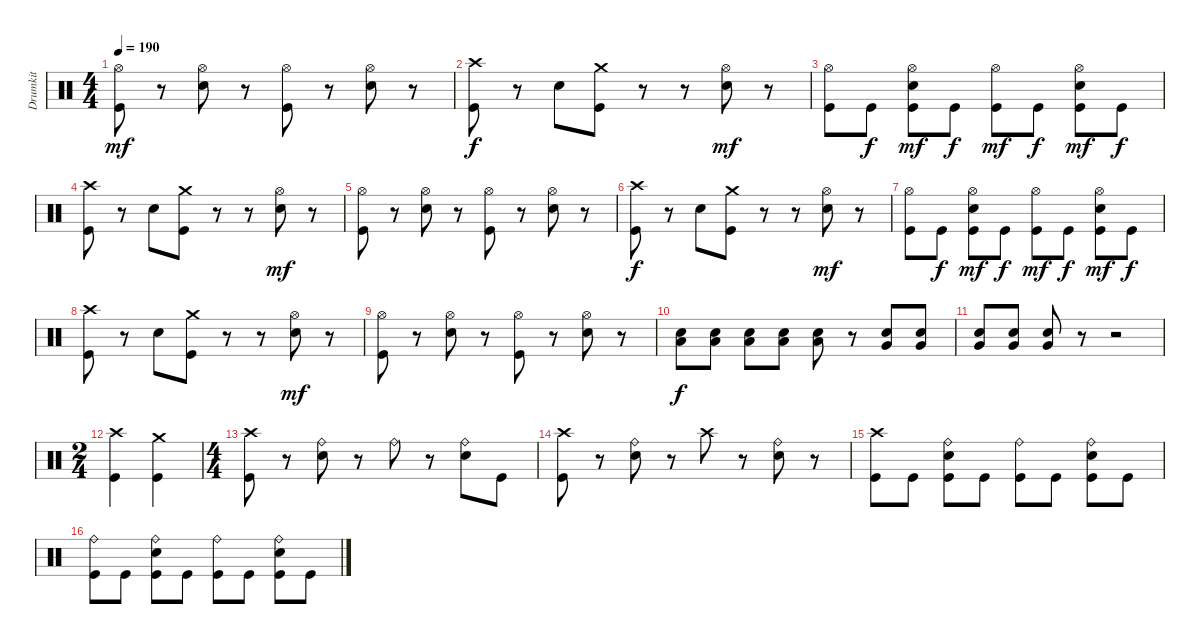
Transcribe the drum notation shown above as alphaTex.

\track ("Drumkit" "Drumkit") {instrument percussion}
\staff {score}
\articulation defaults
\ts (4 4)
\tempo 190
\clef neutral
\ks c
("Hi-Hat (open)" "Kick (hit)").8{dy mf} r.8 ("Hi-Hat (open)" "Snare (hit) 2").8 r.8 ("Hi-Hat (open)" "Kick (hit)").8 r.8 ("Hi-Hat (open)" "Snare (hit) 2").8 r.8 |
("Crash high (hit)" "Kick (hit)").8{dy f} r.8 "Snare (hit) 2".8 ("Crash medium (hit)" "Kick (hit)").8 r.8 r.8 ("Hi-Hat (open)" "Snare (hit) 2").8{dy mf} r.8 |
("Hi-Hat (open)" "Kick (hit)").8 "Kick (hit)".8{dy f} ("Hi-Hat (open)" "Snare (hit) 2" "Kick (hit)").8{dy mf} "Kick (hit)".8{dy f} ("Hi-Hat (open)" "Kick (hit)").8{dy mf} "Kick (hit)".8{dy f} ("Hi-Hat (open)" "Snare (hit) 2" "Kick (hit)").8{dy mf} "Kick (hit)".8{dy f} |
("Crash high (hit)" "Kick (hit)").8 r.8 "Snare (hit) 2".8 ("Crash medium (hit)" "Kick (hit)").8 r.8 r.8 ("Hi-Hat (open)" "Snare (hit) 2").8{dy mf} r.8 |
("Hi-Hat (open)" "Kick (hit)").8 r.8 ("Hi-Hat (open)" "Snare (hit) 2").8 r.8 ("Hi-Hat (open)" "Kick (hit)").8 r.8 ("Hi-Hat (open)" "Snare (hit) 2").8 r.8 |
("Crash high (hit)" "Kick (hit)").8{dy f} r.8 "Snare (hit) 2".8 ("Crash medium (hit)" "Kick (hit)").8 r.8 r.8 ("Hi-Hat (open)" "Snare (hit) 2").8{dy mf} r.8 |
("Hi-Hat (open)" "Kick (hit)").8 "Kick (hit)".8{dy f} ("Hi-Hat (open)" "Snare (hit) 2" "Kick (hit)").8{dy mf} "Kick (hit)".8{dy f} ("Hi-Hat (open)" "Kick (hit)").8{dy mf} "Kick (hit)".8{dy f} ("Hi-Hat (open)" "Snare (hit) 2" "Kick (hit)").8{dy mf} "Kick (hit)".8{dy f} |
("Crash high (hit)" "Kick (hit)").8 r.8 "Snare (hit) 2".8 ("Crash medium (hit)" "Kick (hit)").8 r.8 r.8 ("Hi-Hat (open)" "Snare (hit) 2").8{dy mf} r.8 |
("Hi-Hat (open)" "Kick (hit)").8 r.8 ("Hi-Hat (open)" "Snare (hit) 2").8 r.8 ("Hi-Hat (open)" "Kick (hit)").8 r.8 ("Hi-Hat (open)" "Snare (hit) 2").8 r.8 |
("Snare (hit) 2" "Low Tom (hit)").8{dy f} ("Snare (hit) 2" "Low Tom (hit)").8 ("Snare (hit) 2" "Low Tom (hit)").8 ("Snare (hit) 2" "Low Tom (hit)").8 ("Snare (hit) 2" "Low Tom (hit)").8 r.8 ("Snare (hit) 2" "Very Low Tom (hit)").8 ("Snare (hit) 2" "Very Low Tom (hit)").8 |
("Snare (hit) 2" "Very Low Tom (hit)").8 ("Snare (hit) 2" "Very Low Tom (hit)").8 ("Snare (hit) 2" "Very Low Tom (hit)").8 r.8 r.2 |
\ts (2 4)
("Crash high (hit)" "Kick (hit)").4 ("Crash medium (hit)" "Kick (hit)").4 |
\ts (4 4)
("Crash high (hit)" "Kick (hit)").8 r.8 ("Ride (bell)" "Snare (hit) 2").8 r.8 "Ride (bell)".8 r.8 ("Ride (bell)" "Snare (hit) 2").8 "Kick (hit)".8 |
("Crash high (hit)" "Kick (hit)").8 r.8 ("Ride (bell)" "Snare (hit) 2").8 r.8 "Crash high (hit)".8 r.8 ("Ride (bell)" "Snare (hit) 2").8 r.8 |
("Crash high (hit)" "Kick (hit)").8 "Kick (hit)".8 ("Ride (bell)" "Snare (hit) 2" "Kick (hit)").8 "Kick (hit)".8 ("Ride (bell)" "Kick (hit)").8 "Kick (hit)".8 ("Ride (bell)" "Snare (hit) 2" "Kick (hit)").8 "Kick (hit)".8 |
("Ride (bell)" "Kick (hit)").8 "Kick (hit)".8 ("Ride (bell)" "Snare (hit) 2" "Kick (hit)").8 "Kick (hit)".8 ("Ride (bell)" "Kick (hit)").8 "Kick (hit)".8 ("Ride (bell)" "Snare (hit) 2" "Kick (hit)").8 "Kick (hit)".8
